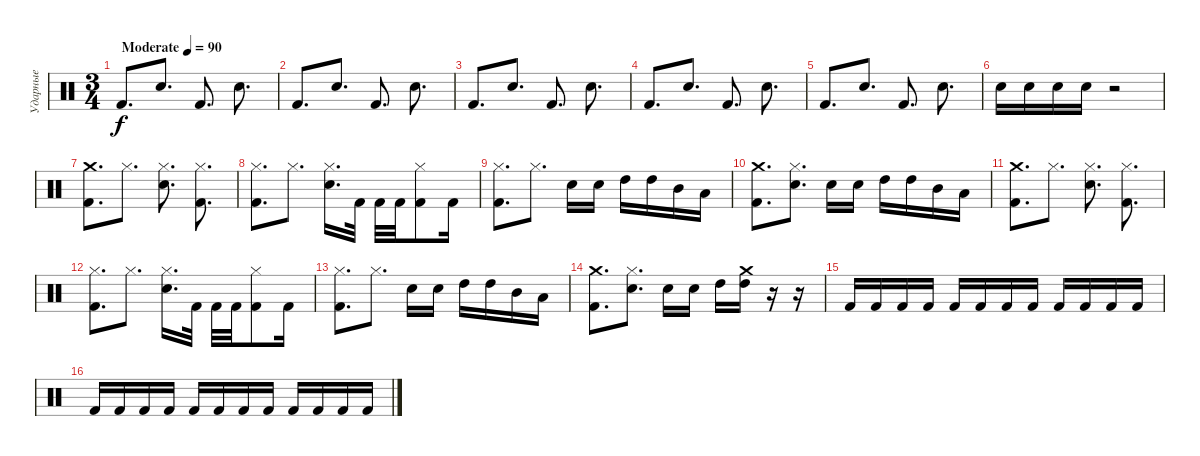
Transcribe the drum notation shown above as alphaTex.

\track ("Ударные" "Ударные") {instrument percussion}
\staff {score}
\articulation defaults
\ts (3 4)
\tempo (90 "Moderate")
\clef neutral
\ks c "Kick (hit) 2".8{d dy f} "Snare (hit) 2".8{d} "Kick (hit) 2".8{d} "Snare (hit) 2".8{d}
|
"Kick (hit) 2".8{d} "Snare (hit) 2".8{d} "Kick (hit) 2".8{d} "Snare (hit) 2".8{d} |
"Kick (hit) 2".8{d} "Snare (hit) 2".8{d} "Kick (hit) 2".8{d} "Snare (hit) 2".8{d} |
"Kick (hit) 2".8{d} "Snare (hit) 2".8{d} "Kick (hit) 2".8{d} "Snare (hit) 2".8{d} |
"Kick (hit) 2".8{d} "Snare (hit) 2".8{d} "Kick (hit) 2".8{d} "Snare (hit) 2".8{d} |
"Snare (hit) 2".16 "Snare (hit) 2".16 "Snare (hit) 2".16 "Snare (hit) 2".16 r.2 |
("Crash medium (hit)" "Kick (hit) 2").8{d} "Hi-Hat (closed)".8{d} ("Hi-Hat (closed)" "Snare (hit) 2").8{d} ("Hi-Hat (closed)" "Kick (hit) 2").8{d} |
("Hi-Hat (closed)" "Kick (hit) 2").8{d} "Hi-Hat (closed)".8{d} ("Hi-Hat (closed)" "Snare (hit) 2").16{d} "Kick (hit) 2".32 "Kick (hit) 2".32 "Kick (hit) 2".32 ("Hi-Hat (closed)" "Kick (hit) 2").8 "Kick (hit) 2".16 |
("Hi-Hat (closed)" "Kick (hit) 2").8{d} "Hi-Hat (closed)".8{d} "Snare (hit) 2".16 "Snare (hit) 2".16 "High Tom (hit)".16 "High Tom (hit)".16 "Mid Tom (hit)".16 "Low Tom (hit)".16 |
("Crash medium (hit)" "Kick (hit) 2").8{d} ("Hi-Hat (closed)" "Snare (hit) 2").8{d} "Snare (hit) 2".16 "Snare (hit) 2".16 "High Tom (hit)".16 "High Tom (hit)".16 "Mid Tom (hit)".16 "Low Tom (hit)".16 |
("Crash medium (hit)" "Kick (hit) 2").8{d} "Hi-Hat (closed)".8{d} ("Hi-Hat (closed)" "Snare (hit) 2").8{d} ("Hi-Hat (closed)" "Kick (hit) 2").8{d} |
("Hi-Hat (closed)" "Kick (hit) 2").8{d} "Hi-Hat (closed)".8{d} ("Hi-Hat (closed)" "Snare (hit) 2").16{d} "Kick (hit) 2".32 "Kick (hit) 2".32 "Kick (hit) 2".32 ("Hi-Hat (closed)" "Kick (hit) 2").8 "Kick (hit) 2".16 |
("Hi-Hat (closed)" "Kick (hit) 2").8{d} "Hi-Hat (closed)".8{d} "Snare (hit) 2".16 "Snare (hit) 2".16 "High Tom (hit)".16 "High Tom (hit)".16 "Mid Tom (hit)".16 "Low Tom (hit)".16 |
("Crash medium (hit)" "Kick (hit) 2").8{d} ("Hi-Hat (closed)" "Snare (hit) 2").8{d} "Snare (hit) 2".16 "Snare (hit) 2".16 "High Tom (hit)".16 ("Crash medium (hit)" "High Tom (hit)").16 r.16 r.16 |
"Kick (hit) 2".16 "Kick (hit) 2".16 "Kick (hit) 2".16 "Kick (hit) 2".16 "Kick (hit) 2".16 "Kick (hit) 2".16 "Kick (hit) 2".16 "Kick (hit) 2".16 "Kick (hit) 2".16 "Kick (hit) 2".16 "Kick (hit) 2".16 "Kick (hit) 2".16 |
"Kick (hit) 2".16 "Kick (hit) 2".16 "Kick (hit) 2".16 "Kick (hit) 2".16 "Kick (hit) 2".16 "Kick (hit) 2".16 "Kick (hit) 2".16 "Kick (hit) 2".16 "Kick (hit) 2".16 "Kick (hit) 2".16 "Kick (hit) 2".16 "Kick (hit) 2".16
